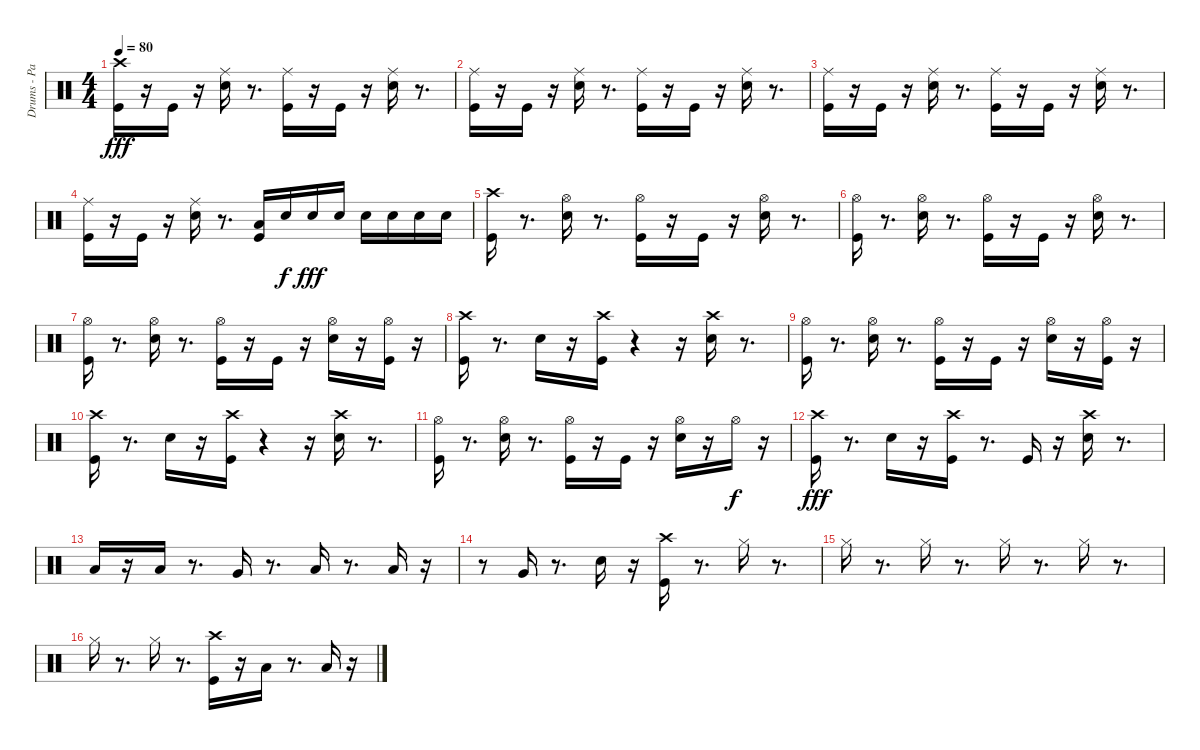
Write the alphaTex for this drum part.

\track ("Drums - Paice" "Drums - Pa") {instrument percussion}
\staff {score}
\articulation defaults
\ts (4 4)
\tempo 80
\clef neutral
\ks c
("Kick (hit)" "Crash high (hit)").16{dy fff} r.16 "Kick (hit)".16 r.16 ("Snare (hit) 2" "Ride (middle)").16 r.8{d} ("Kick (hit)" "Ride (middle)").16 r.16 "Kick (hit)".16 r.16 ("Snare (hit) 2" "Ride (middle)").16 r.8{d} |
("Ride (middle)" "Kick (hit)").16 r.16 "Kick (hit)".16 r.16 ("Snare (hit) 2" "Ride (middle)").16 r.8{d} ("Ride (middle)" "Kick (hit)").16 r.16 "Kick (hit)".16 r.16 ("Ride (middle)" "Snare (hit) 2").16 r.8{d} |
("Kick (hit)" "Ride (middle)").16 r.16 "Kick (hit)".16 r.16 ("Snare (hit) 2" "Ride (middle)").16 r.8{d} ("Ride (middle)" "Kick (hit)").16 r.16 "Kick (hit)".16 r.16 ("Snare (hit) 2" "Ride (middle)").16 r.8{d} |
("Kick (hit)" "Ride (middle)").16 r.16 "Kick (hit)".16 r.16 ("Snare (hit) 2" "Ride (middle)").16 r.8{d} ("Kick (hit)" "Low Tom (hit)").16 "Snare (hit) 2".16{dy f} "Snare (hit) 2".16{dy fff} "Snare (hit) 2".16 "Snare (hit) 2".16 "Snare (hit) 2".16 "Snare (hit) 2".16 "Snare (hit) 2".16 |
("Crash high (hit)" "Kick (hit)").16 r.8{d} ("Hi-Hat (open)" "Snare (hit) 2").16 r.8{d} ("Hi-Hat (open)" "Kick (hit)").16 r.16 "Kick (hit)".16 r.16 ("Snare (hit) 2" "Hi-Hat (open)").16 r.8{d} |
("Hi-Hat (open)" "Kick (hit)").16 r.8{d} ("Hi-Hat (open)" "Snare (hit) 2").16 r.8{d} ("Hi-Hat (open)" "Kick (hit)").16 r.16 "Kick (hit)".16 r.16 ("Snare (hit) 2" "Hi-Hat (open)").16 r.8{d} |
("Hi-Hat (open)" "Kick (hit)").16 r.8{d} ("Hi-Hat (open)" "Snare (hit) 2").16 r.8{d} ("Hi-Hat (open)" "Kick (hit)").16 r.16 "Kick (hit)".16 r.16 ("Snare (hit) 2" "Hi-Hat (open)").16 r.16 ("Hi-Hat (open)" "Kick (hit)").16 r.16 |
("Kick (hit)" "Crash high (hit)").16 r.8{d} "Snare (hit) 2".16 r.16 ("Crash high (hit)" "Kick (hit)").16 r.4 r.16 ("Snare (hit) 2" "Crash high (hit)").16 r.8{d} |
("Kick (hit)" "Hi-Hat (open)").16 r.8{d} ("Hi-Hat (open)" "Snare (hit) 2").16 r.8{d} ("Hi-Hat (open)" "Kick (hit)").16 r.16 "Kick (hit)".16 r.16 ("Hi-Hat (open)" "Snare (hit) 2").16 r.16 ("Hi-Hat (open)" "Kick (hit)").16 r.16 |
("Kick (hit)" "Crash high (hit)").16 r.8{d} "Snare (hit) 2".16 r.16 ("Crash high (hit)" "Kick (hit)").16 r.4 r.16 ("Crash high (hit)" "Snare (hit) 2").16 r.8{d} |
("Kick (hit)" "Hi-Hat (open)").16 r.8{d} ("Snare (hit) 2" "Hi-Hat (open)").16 r.8{d} ("Kick (hit)" "Hi-Hat (open)").16 r.16 "Kick (hit)".16 r.16 ("Hi-Hat (open)" "Snare (hit) 2").16 r.16 "Hi-Hat (open)".16{dy f} r.16 |
("Kick (hit)" "Crash high (hit)").16{dy fff} r.8{d} "Snare (hit) 2".16 r.16 ("Kick (hit)" "Crash high (hit)").16 r.8{d} "Kick (hit)".16 r.16 ("Snare (hit) 2" "Crash high (hit)").16 r.8{d} |
"Low Tom (hit)".16 r.16 "Low Tom (hit)".16 r.8{d} "Very Low Tom (hit)".16 r.8{d} "Low Tom (hit)".16 r.8{d} "Low Tom (hit)".16 r.16 |
r.8 "Very Low Tom (hit)".16 r.8{d} "Snare (hit) 2".16 r.16 ("Crash high (hit)" "Kick (hit)").16 r.8{d} "Hi-Hat (closed)".16 r.8{d} |
"Hi-Hat (closed)".16 r.8{d} "Hi-Hat (closed)".16 r.8{d} "Hi-Hat (closed)".16 r.8{d} "Hi-Hat (closed)".16 r.8{d} |
"Hi-Hat (closed)".16 r.8{d} "Hi-Hat (closed)".16 r.8{d} ("Kick (hit)" "Crash high (hit)").16 r.16 "Low Tom (hit)".16 r.8{d} "Low Tom (hit)".16 r.16
